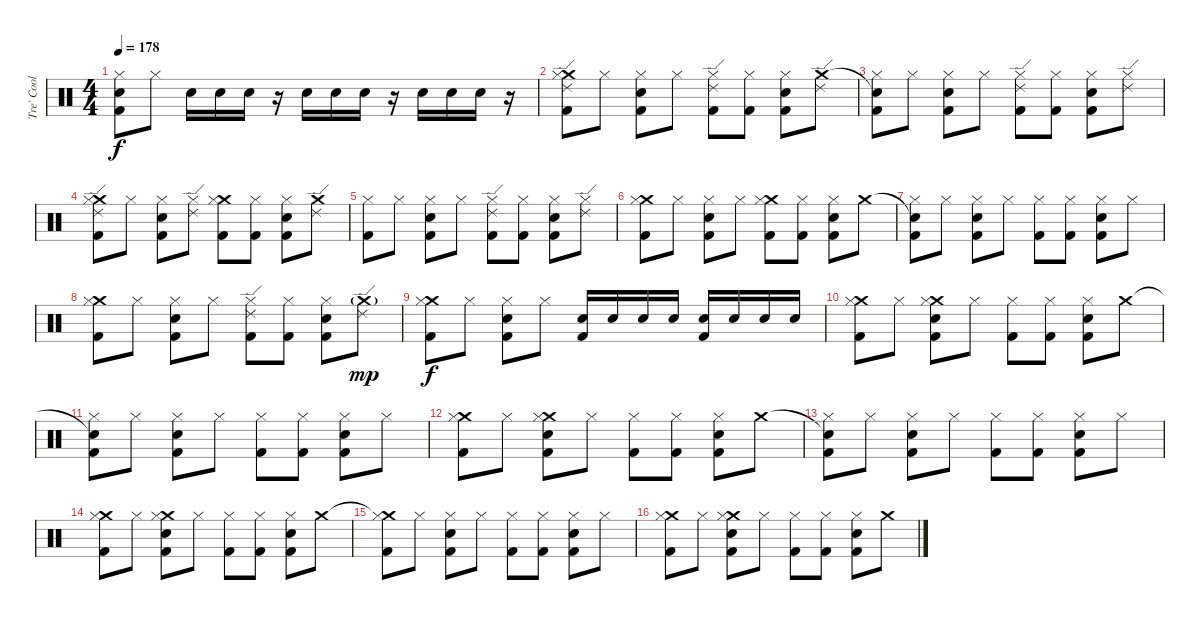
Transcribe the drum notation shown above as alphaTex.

\track ("Tre` Cool (Drums)" "Tre` Cool ") {instrument percussion}
\staff {score}
\articulation defaults
\ts (4 4)
\tempo 178
\clef neutral
\ks c
("Snare (hit)"{t} "Hi-Hat (closed)" "Kick (hit) 2").8{dy f} "Hi-Hat (closed)".8 "Snare (hit) 2".16 "Snare (hit) 2".16 "Snare (hit) 2".16 r.16 "Snare (hit) 2".16 "Snare (hit) 2".16 "Snare (hit) 2".16 r.16 "Snare (hit) 2".16 "Snare (hit) 2".16 "Snare (hit) 2".16 r.16 |
("Crash medium (hit)" "Ride (edge) 2" "Hi-Hat (closed)" "Kick (hit) 2").8 "Hi-Hat (closed)".8 ("Hi-Hat (closed)" "Snare (hit) 2" "Kick (hit) 2").8 "Hi-Hat (closed)".8 ("Ride (edge) 2" "Hi-Hat (closed)" "Kick (hit) 2").8 ("Hi-Hat (closed)" "Kick (hit) 2").8 ("Hi-Hat (closed)" "Snare (hit) 2" "Kick (hit) 2").8 ("Crash medium (hit)" "Ride (edge) 2").8 |
("Snare (hit)"{t} "Hi-Hat (closed)" "Kick (hit) 2").8 "Hi-Hat (closed)".8 ("Hi-Hat (closed)" "Snare (hit) 2" "Kick (hit) 2").8 "Hi-Hat (closed)".8 ("Ride (edge) 2" "Hi-Hat (closed)" "Kick (hit) 2").8 ("Hi-Hat (closed)" "Kick (hit) 2").8 ("Hi-Hat (closed)" "Snare (hit) 2" "Kick (hit) 2").8 ("Ride (edge) 2" "Hi-Hat (closed)").8 |
("Crash medium (hit)" "Ride (edge) 2" "Hi-Hat (closed)" "Kick (hit) 2").8 "Hi-Hat (closed)".8 ("Hi-Hat (closed)" "Snare (hit) 2" "Kick (hit) 2").8 ("Ride (edge) 2" "Hi-Hat (closed)").8 ("Crash medium (hit)" "Hi-Hat (closed)" "Kick (hit) 2").8 ("Hi-Hat (closed)" "Kick (hit) 2").8 ("Hi-Hat (closed)" "Snare (hit) 2" "Kick (hit) 2").8 ("Crash medium (hit)" "Ride (edge) 2").8 |
("Hi-Hat (closed)" "Kick (hit) 2").8 "Hi-Hat (closed)".8 ("Hi-Hat (closed)" "Snare (hit) 2" "Kick (hit) 2").8 "Hi-Hat (closed)".8 ("Ride (edge) 2" "Hi-Hat (closed)" "Kick (hit) 2").8 ("Hi-Hat (closed)" "Kick (hit) 2").8 ("Hi-Hat (closed)" "Snare (hit) 2" "Kick (hit) 2").8 ("Ride (edge) 2" "Hi-Hat (closed)").8 |
("Crash medium (hit)" "Hi-Hat (closed)" "Kick (hit) 2").8 "Hi-Hat (closed)".8 ("Hi-Hat (closed)" "Snare (hit) 2" "Kick (hit) 2").8 "Hi-Hat (closed)".8 ("Crash medium (hit)" "Hi-Hat (closed)" "Kick (hit) 2").8 ("Hi-Hat (closed)" "Kick (hit) 2").8 ("Hi-Hat (closed)" "Snare (hit) 2" "Kick (hit) 2").8 "Crash medium (hit)".8 |
("Snare (hit)"{t} "Hi-Hat (closed)" "Kick (hit) 2").8 "Hi-Hat (closed)".8 ("Hi-Hat (closed)" "Snare (hit) 2" "Kick (hit) 2").8 "Hi-Hat (closed)".8 ("Hi-Hat (closed)" "Kick (hit) 2").8 ("Hi-Hat (closed)" "Kick (hit) 2").8 ("Hi-Hat (closed)" "Snare (hit) 2" "Kick (hit) 2").8 "Hi-Hat (closed)".8 |
("Crash medium (hit)" "Hi-Hat (closed)" "Kick (hit) 2").8 "Hi-Hat (closed)".8 ("Hi-Hat (closed)" "Snare (hit) 2" "Kick (hit) 2").8 "Hi-Hat (closed)".8 ("Ride (edge) 2" "Hi-Hat (closed)" "Kick (hit) 2").8 ("Hi-Hat (closed)" "Kick (hit) 2").8 ("Hi-Hat (closed)" "Snare (hit) 2" "Kick (hit) 2").8 ("Crash medium (hit)"{g} "Ride (edge) 2").8{dy mp} |
("Crash medium (hit)" "Hi-Hat (closed)" "Kick (hit) 2").8{dy f} "Hi-Hat (closed)".8 ("Hi-Hat (closed)" "Snare (hit) 2" "Kick (hit) 2").8 "Hi-Hat (closed)".8 ("Snare (hit) 2" "Kick (hit) 2").16 "Snare (hit) 2".16 "Snare (hit) 2".16 "Snare (hit) 2".16 ("Snare (hit) 2" "Kick (hit) 2").16 "Snare (hit) 2".16 "Snare (hit) 2".16 "Snare (hit) 2".16 |
("Crash medium (hit)" "Hi-Hat (closed)" "Kick (hit) 2").8 "Hi-Hat (closed)".8 ("Crash medium (hit)" "Hi-Hat (closed)" "Snare (hit) 2" "Kick (hit) 2").8 "Hi-Hat (closed)".8 ("Hi-Hat (closed)" "Kick (hit) 2").8 ("Hi-Hat (closed)" "Kick (hit) 2").8 ("Hi-Hat (closed)" "Snare (hit) 2" "Kick (hit) 2").8 "Crash medium (hit)".8 |
("Snare (hit)"{t} "Hi-Hat (closed)" "Kick (hit) 2").8 "Hi-Hat (closed)".8 ("Hi-Hat (closed)" "Snare (hit) 2" "Kick (hit) 2").8 "Hi-Hat (closed)".8 ("Hi-Hat (closed)" "Kick (hit) 2").8 ("Hi-Hat (closed)" "Kick (hit) 2").8 ("Hi-Hat (closed)" "Snare (hit) 2" "Kick (hit) 2").8 "Hi-Hat (closed)".8 |
("Crash medium (hit)" "Hi-Hat (closed)" "Kick (hit) 2").8 "Hi-Hat (closed)".8 ("Crash medium (hit)" "Hi-Hat (closed)" "Snare (hit) 2" "Kick (hit) 2").8 "Hi-Hat (closed)".8 ("Hi-Hat (closed)" "Kick (hit) 2").8 ("Hi-Hat (closed)" "Kick (hit) 2").8 ("Hi-Hat (closed)" "Snare (hit) 2" "Kick (hit) 2").8 "Crash medium (hit)".8 |
("Snare (hit)"{t} "Hi-Hat (closed)" "Kick (hit) 2").8 "Hi-Hat (closed)".8 ("Hi-Hat (closed)" "Snare (hit) 2" "Kick (hit) 2").8 "Hi-Hat (closed)".8 ("Hi-Hat (closed)" "Kick (hit) 2").8 ("Hi-Hat (closed)" "Kick (hit) 2").8 ("Hi-Hat (closed)" "Snare (hit) 2" "Kick (hit) 2").8 "Hi-Hat (closed)".8 |
("Crash medium (hit)" "Hi-Hat (closed)" "Kick (hit) 2").8 "Hi-Hat (closed)".8 ("Crash medium (hit)" "Hi-Hat (closed)" "Snare (hit) 2" "Kick (hit) 2").8 "Hi-Hat (closed)".8 ("Hi-Hat (closed)" "Kick (hit) 2").8 ("Hi-Hat (closed)" "Kick (hit) 2").8 ("Hi-Hat (closed)" "Snare (hit) 2" "Kick (hit) 2").8 "Crash medium (hit)".8 |
("Crash medium (hit)"{t} "Hi-Hat (closed)" "Kick (hit) 2").8 "Hi-Hat (closed)".8 ("Hi-Hat (closed)" "Snare (hit) 2" "Kick (hit) 2").8 "Hi-Hat (closed)".8 ("Hi-Hat (closed)" "Kick (hit) 2").8 ("Hi-Hat (closed)" "Kick (hit) 2").8 ("Hi-Hat (closed)" "Snare (hit) 2" "Kick (hit) 2").8 "Hi-Hat (closed)".8 |
("Crash medium (hit)" "Hi-Hat (closed)" "Kick (hit) 2").8 "Hi-Hat (closed)".8 ("Crash medium (hit)" "Hi-Hat (closed)" "Snare (hit) 2" "Kick (hit) 2").8 "Hi-Hat (closed)".8 ("Hi-Hat (closed)" "Kick (hit) 2").8 ("Hi-Hat (closed)" "Kick (hit) 2").8 ("Hi-Hat (closed)" "Snare (hit) 2" "Kick (hit) 2").8 "Crash medium (hit)".8
